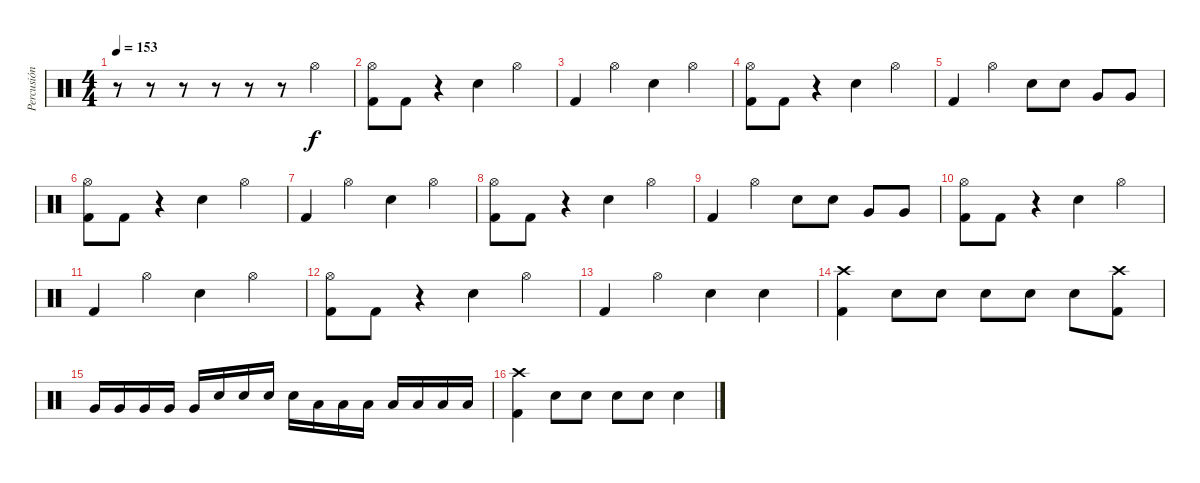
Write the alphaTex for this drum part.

\track ("Percusión" "Percusión") {instrument percussion}
\staff {score}
\articulation defaults
\ts (4 4)
\tempo 153
\clef neutral
\ks c
r.8{dy f} r.8 r.8 r.8 r.8 r.8 "Hi-Hat (open)".4 |
("Hi-Hat (open)" "Kick (hit) 2").8 "Kick (hit) 2".8 r.4 "Electric Snare (hit)".4 "Hi-Hat (open)".4 |
"Kick (hit) 2".4 "Hi-Hat (open)".4 "Electric Snare (hit)".4 "Hi-Hat (open)".4 |
("Hi-Hat (open)" "Kick (hit) 2").8 "Kick (hit) 2".8 r.4 "Electric Snare (hit)".4 "Hi-Hat (open)".4 |
"Kick (hit) 2".4 "Hi-Hat (open)".4 "Electric Snare (hit)".8 "Electric Snare (hit)".8 "Very Low Tom (hit)".8 "Very Low Tom (hit)".8 |
("Hi-Hat (open)" "Kick (hit) 2").8 "Kick (hit) 2".8 r.4 "Electric Snare (hit)".4 "Hi-Hat (open)".4 |
"Kick (hit) 2".4 "Hi-Hat (open)".4 "Electric Snare (hit)".4 "Hi-Hat (open)".4 |
("Hi-Hat (open)" "Kick (hit) 2").8 "Kick (hit) 2".8 r.4 "Electric Snare (hit)".4 "Hi-Hat (open)".4 |
"Kick (hit) 2".4 "Hi-Hat (open)".4 "Electric Snare (hit)".8 "Electric Snare (hit)".8 "Very Low Tom (hit)".8 "Very Low Tom (hit)".8 |
("Hi-Hat (open)" "Kick (hit) 2").8 "Kick (hit) 2".8 r.4 "Electric Snare (hit)".4 "Hi-Hat (open)".4 |
"Kick (hit) 2".4 "Hi-Hat (open)".4 "Electric Snare (hit)".4 "Hi-Hat (open)".4 |
("Hi-Hat (open)" "Kick (hit) 2").8 "Kick (hit) 2".8 r.4 "Electric Snare (hit)".4 "Hi-Hat (open)".4 |
"Kick (hit) 2".4 "Hi-Hat (open)".4 "Electric Snare (hit)".4 "Electric Snare (hit)".4 |
("Crash high (hit)" "Kick (hit) 2").4 "Electric Snare (hit)".8 "Electric Snare (hit)".8 "Electric Snare (hit)".8 "Electric Snare (hit)".8 "Electric Snare (hit)".8 ("Crash high (hit)" "Kick (hit) 2").8 |
"Very Low Tom (hit)".16 "Very Low Tom (hit)".16 "Very Low Tom (hit)".16 "Very Low Tom (hit)".16 "Very Low Tom (hit)".16 "Electric Snare (hit)".16 "Electric Snare (hit)".16 "Electric Snare (hit)".16 "Electric Snare (hit)".16 "Low Tom (hit)".16 "Low Tom (hit)".16 "Low Tom (hit)".16 "Low Tom (hit)".16 "Low Tom (hit)".16 "Low Tom (hit)".16 "Low Tom (hit)".16 |
("Crash high (hit)" "Kick (hit) 2").4 "Electric Snare (hit)".8 "Electric Snare (hit)".8 "Electric Snare (hit)".8 "Electric Snare (hit)".8 "Electric Snare (hit)".4
